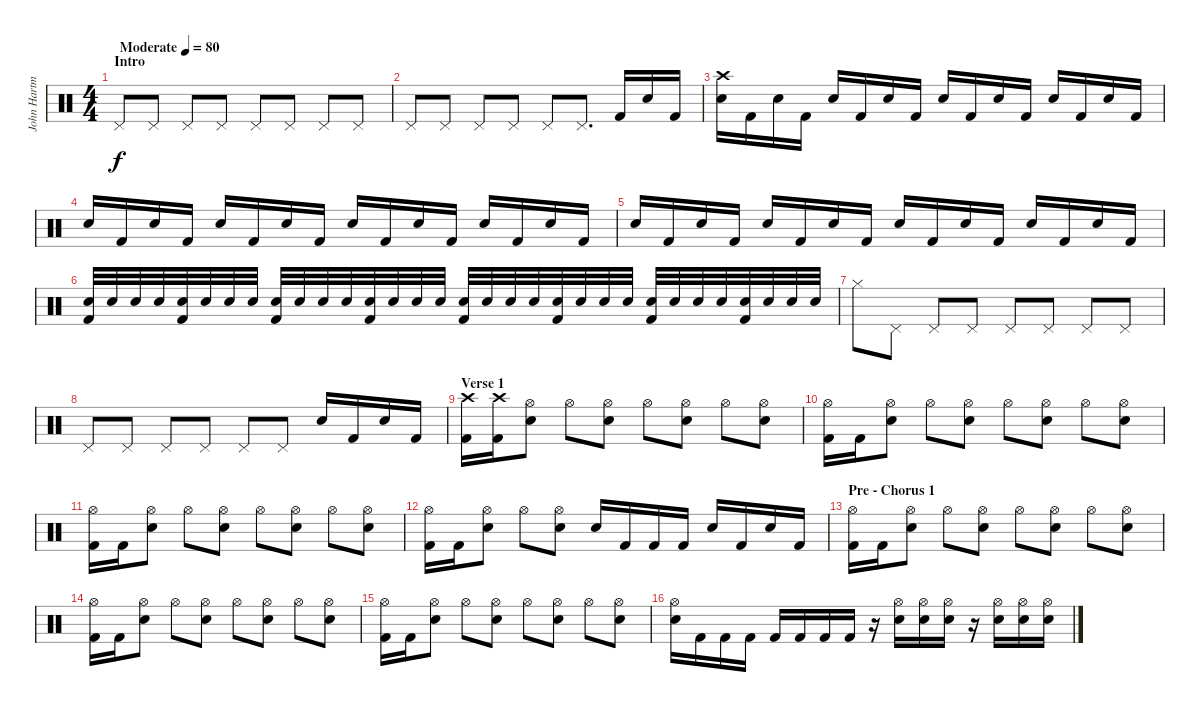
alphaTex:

\track ("John Hartman" "John Hartm") {instrument percussion}
\staff {score}
\articulation defaults
\ts (4 4)
\section ("" "Intro")
\tempo (80 "Moderate")
\clef neutral
\ks c "Pedal Hi-Hat (hit)".8{dy f} "Pedal Hi-Hat (hit)".8 "Pedal Hi-Hat (hit)".8 "Pedal Hi-Hat (hit)".8 "Pedal Hi-Hat (hit)".8 "Pedal Hi-Hat (hit)".8 "Pedal Hi-Hat (hit)".8 "Pedal Hi-Hat (hit)".8
|
"Pedal Hi-Hat (hit)".8 "Pedal Hi-Hat (hit)".8 "Pedal Hi-Hat (hit)".8 "Pedal Hi-Hat (hit)".8 "Pedal Hi-Hat (hit)".8 "Pedal Hi-Hat (hit)".8{d} "Kick (hit) 2".16 "Electric Snare (hit)".16 "Kick (hit) 2".16 |
("Electric Snare (hit)" "Crash high (hit)").16 "Kick (hit) 2".16 "Electric Snare (hit)".16 "Kick (hit) 2".16 "Electric Snare (hit)".16 "Kick (hit) 2".16 "Electric Snare (hit)".16 "Kick (hit) 2".16 "Electric Snare (hit)".16 "Kick (hit) 2".16 "Electric Snare (hit)".16 "Kick (hit) 2".16 "Electric Snare (hit)".16 "Kick (hit) 2".16 "Electric Snare (hit)".16 "Kick (hit) 2".16 |
"Electric Snare (hit)".16 "Kick (hit) 2".16 "Electric Snare (hit)".16 "Kick (hit) 2".16 "Electric Snare (hit)".16 "Kick (hit) 2".16 "Electric Snare (hit)".16 "Kick (hit) 2".16 "Electric Snare (hit)".16 "Kick (hit) 2".16 "Electric Snare (hit)".16 "Kick (hit) 2".16 "Electric Snare (hit)".16 "Kick (hit) 2".16 "Electric Snare (hit)".16 "Kick (hit) 2".16 |
"Electric Snare (hit)".16 "Kick (hit) 2".16 "Electric Snare (hit)".16 "Kick (hit) 2".16 "Electric Snare (hit)".16 "Kick (hit) 2".16 "Electric Snare (hit)".16 "Kick (hit) 2".16 "Electric Snare (hit)".16 "Kick (hit) 2".16 "Electric Snare (hit)".16 "Kick (hit) 2".16 "Electric Snare (hit)".16 "Kick (hit) 2".16 "Electric Snare (hit)".16 "Kick (hit) 2".16 |
("Electric Snare (hit)" "Kick (hit) 2").32 "Electric Snare (hit)".32 "Electric Snare (hit)".32 "Electric Snare (hit)".32 ("Electric Snare (hit)" "Kick (hit) 2").32 "Electric Snare (hit)".32 "Electric Snare (hit)".32 "Electric Snare (hit)".32 ("Electric Snare (hit)" "Kick (hit) 2").32 "Electric Snare (hit)".32 "Electric Snare (hit)".32 "Electric Snare (hit)".32 ("Electric Snare (hit)" "Kick (hit) 2").32 "Electric Snare (hit)".32 "Electric Snare (hit)".32 "Electric Snare (hit)".32 ("Electric Snare (hit)" "Kick (hit) 2").32 "Electric Snare (hit)".32 "Electric Snare (hit)".32 "Electric Snare (hit)".32 ("Electric Snare (hit)" "Kick (hit) 2").32 "Electric Snare (hit)".32 "Electric Snare (hit)".32 "Electric Snare (hit)".32 ("Electric Snare (hit)" "Kick (hit) 2").32 "Electric Snare (hit)".32 "Electric Snare (hit)".32 "Electric Snare (hit)".32 ("Electric Snare (hit)" "Kick (hit) 2").32 "Electric Snare (hit)".32 "Electric Snare (hit)".32 "Electric Snare (hit)".32 |
"Hi-Hat (closed)".8 "Pedal Hi-Hat (hit)".8 "Pedal Hi-Hat (hit)".8 "Pedal Hi-Hat (hit)".8 "Pedal Hi-Hat (hit)".8 "Pedal Hi-Hat (hit)".8 "Pedal Hi-Hat (hit)".8 "Pedal Hi-Hat (hit)".8 |
"Pedal Hi-Hat (hit)".8 "Pedal Hi-Hat (hit)".8 "Pedal Hi-Hat (hit)".8 "Pedal Hi-Hat (hit)".8 "Pedal Hi-Hat (hit)".8 "Pedal Hi-Hat (hit)".8 "Electric Snare (hit)".16 "Kick (hit) 2".16 "Electric Snare (hit)".16 "Kick (hit) 2".16 |
\section ("" "Verse 1")
("Crash high (hit)" "Kick (hit) 2").16 ("Crash high (hit)" "Kick (hit) 2").16 ("Hi-Hat (open)" "Electric Snare (hit)").8 "Hi-Hat (open)".8 ("Hi-Hat (open)" "Electric Snare (hit)").8 "Hi-Hat (open)".8 ("Hi-Hat (open)" "Electric Snare (hit)").8 "Hi-Hat (open)".8 ("Hi-Hat (open)" "Electric Snare (hit)").8 |
("Hi-Hat (open)" "Kick (hit) 2").16 "Kick (hit) 2".16 ("Hi-Hat (open)" "Electric Snare (hit)").8 "Hi-Hat (open)".8 ("Hi-Hat (open)" "Electric Snare (hit)").8 "Hi-Hat (open)".8 ("Hi-Hat (open)" "Electric Snare (hit)").8 "Hi-Hat (open)".8 ("Hi-Hat (open)" "Electric Snare (hit)").8 |
("Hi-Hat (open)" "Kick (hit) 2").16 "Kick (hit) 2".16 ("Hi-Hat (open)" "Electric Snare (hit)").8 "Hi-Hat (open)".8 ("Hi-Hat (open)" "Electric Snare (hit)").8 "Hi-Hat (open)".8 ("Hi-Hat (open)" "Electric Snare (hit)").8 "Hi-Hat (open)".8 ("Hi-Hat (open)" "Electric Snare (hit)").8 |
("Hi-Hat (open)" "Kick (hit) 2").16 "Kick (hit) 2".16 ("Hi-Hat (open)" "Electric Snare (hit)").8 "Hi-Hat (open)".8 ("Hi-Hat (open)" "Electric Snare (hit)").8 "Electric Snare (hit)".16 "Kick (hit) 2".16 "Kick (hit) 2".16 "Kick (hit) 2".16 "Electric Snare (hit)".16 "Kick (hit) 2".16 "Electric Snare (hit)".16 "Kick (hit) 2".16 |
\section ("" "Pre - Chorus 1")
("Hi-Hat (open)" "Kick (hit) 2").16 "Kick (hit) 2".16 ("Hi-Hat (open)" "Electric Snare (hit)").8 "Hi-Hat (open)".8 ("Hi-Hat (open)" "Electric Snare (hit)").8 "Hi-Hat (open)".8 ("Hi-Hat (open)" "Electric Snare (hit)").8 "Hi-Hat (open)".8 ("Hi-Hat (open)" "Electric Snare (hit)").8 |
("Hi-Hat (open)" "Kick (hit) 2").16 "Kick (hit) 2".16 ("Hi-Hat (open)" "Electric Snare (hit)").8 "Hi-Hat (open)".8 ("Hi-Hat (open)" "Electric Snare (hit)").8 "Hi-Hat (open)".8 ("Hi-Hat (open)" "Electric Snare (hit)").8 "Hi-Hat (open)".8 ("Hi-Hat (open)" "Electric Snare (hit)").8 |
("Hi-Hat (open)" "Kick (hit) 2").16 "Kick (hit) 2".16 ("Hi-Hat (open)" "Electric Snare (hit)").8 "Hi-Hat (open)".8 ("Hi-Hat (open)" "Electric Snare (hit)").8 "Hi-Hat (open)".8 ("Hi-Hat (open)" "Electric Snare (hit)").8 "Hi-Hat (open)".8 ("Hi-Hat (open)" "Electric Snare (hit)").8 |
("Hi-Hat (open)" "Electric Snare (hit)").16 "Kick (hit) 2".16 "Kick (hit) 2".16 "Kick (hit) 2".16 "Kick (hit) 2".16 "Kick (hit) 2".16 "Kick (hit) 2".16 "Kick (hit) 2".16 r.16 ("Hi-Hat (open)" "Electric Snare (hit)").16 ("Hi-Hat (open)" "Electric Snare (hit)").16 ("Hi-Hat (open)" "Electric Snare (hit)").16 r.16 ("Hi-Hat (open)" "Electric Snare (hit)").16 ("Hi-Hat (open)" "Electric Snare (hit)").16 ("Hi-Hat (open)" "Electric Snare (hit)").16
